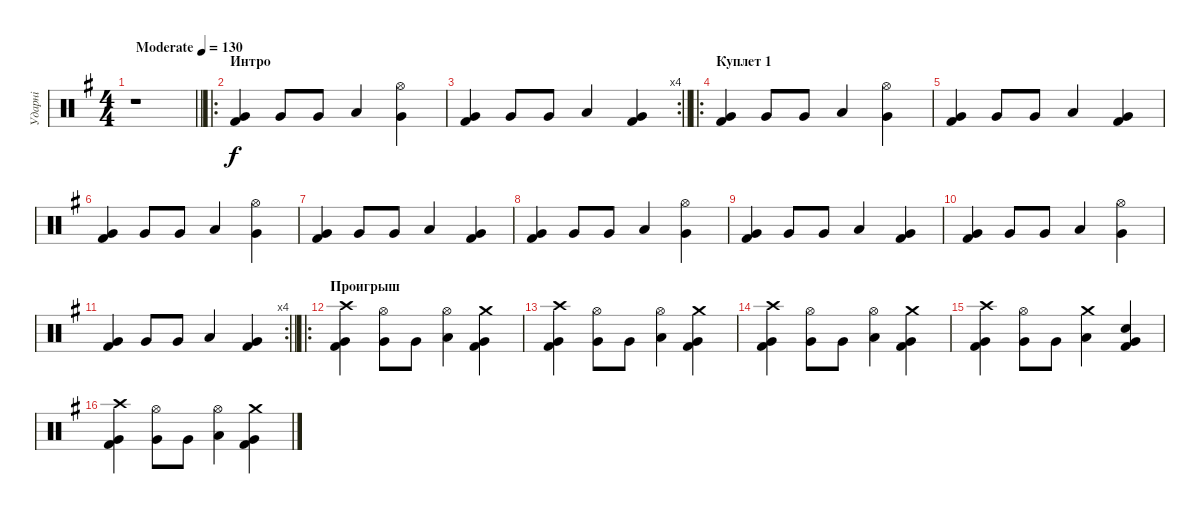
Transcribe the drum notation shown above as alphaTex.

\track ("Ударні" "Ударні") {instrument percussion}
\staff {score}
\articulation defaults
\ts (4 4)
\tempo (130 "Moderate")
\clef neutral
\barLineRight lightlight
\ks eminor
r.1{dy f} |
\ro
\section ("" "Интро")
("Kick (hit) 2" "Very Low Tom (hit)").4 "Very Low Tom (hit)".8 "Very Low Tom (hit)".8 "Low Tom (hit)".4 ("Very Low Tom (hit)" "Hi-Hat (open)").4 |
\rc 4
\barLineRight lightlight
("Kick (hit) 2" "Very Low Tom (hit)").4 "Very Low Tom (hit)".8 "Very Low Tom (hit)".8 "Low Tom (hit)".4 ("Kick (hit) 2" "Very Low Tom (hit)").4 |
\ro
\section ("" "Куплет 1")
("Kick (hit) 2" "Very Low Tom (hit)").4 "Very Low Tom (hit)".8 "Very Low Tom (hit)".8 "Low Tom (hit)".4 ("Very Low Tom (hit)" "Hi-Hat (open)").4 |
("Kick (hit) 2" "Very Low Tom (hit)").4 "Very Low Tom (hit)".8 "Very Low Tom (hit)".8 "Low Tom (hit)".4 ("Kick (hit) 2" "Very Low Tom (hit)").4 |
("Kick (hit) 2" "Very Low Tom (hit)").4 "Very Low Tom (hit)".8 "Very Low Tom (hit)".8 "Low Tom (hit)".4 ("Very Low Tom (hit)" "Hi-Hat (open)").4 |
("Kick (hit) 2" "Very Low Tom (hit)").4 "Very Low Tom (hit)".8 "Very Low Tom (hit)".8 "Low Tom (hit)".4 ("Kick (hit) 2" "Very Low Tom (hit)").4 |
("Kick (hit) 2" "Very Low Tom (hit)").4 "Very Low Tom (hit)".8 "Very Low Tom (hit)".8 "Low Tom (hit)".4 ("Very Low Tom (hit)" "Hi-Hat (open)").4 |
("Kick (hit) 2" "Very Low Tom (hit)").4 "Very Low Tom (hit)".8 "Very Low Tom (hit)".8 "Low Tom (hit)".4 ("Kick (hit) 2" "Very Low Tom (hit)").4 |
("Kick (hit) 2" "Very Low Tom (hit)").4 "Very Low Tom (hit)".8 "Very Low Tom (hit)".8 "Low Tom (hit)".4 ("Very Low Tom (hit)" "Hi-Hat (open)").4 |
\rc 4
\barLineRight lightlight
("Kick (hit) 2" "Very Low Tom (hit)").4 "Very Low Tom (hit)".8 "Very Low Tom (hit)".8 "Low Tom (hit)".4 ("Kick (hit) 2" "Very Low Tom (hit)").4 |
\ro
\section ("" "Проигрыш")
("Kick (hit) 2" "Very Low Tom (hit)" "Crash high (hit)").4 ("Very Low Tom (hit)" "Hi-Hat (open)").8 "Very Low Tom (hit)".8 ("Low Tom (hit)" "Hi-Hat (open)").4 ("Kick (hit) 2" "Very Low Tom (hit)" "Crash medium (hit)").4 |
("Kick (hit) 2" "Very Low Tom (hit)" "Crash high (hit)").4 ("Very Low Tom (hit)" "Hi-Hat (open)").8 "Very Low Tom (hit)".8 ("Low Tom (hit)" "Hi-Hat (open)").4 ("Kick (hit) 2" "Very Low Tom (hit)" "Crash medium (hit)").4 |
("Kick (hit) 2" "Very Low Tom (hit)" "Crash high (hit)").4 ("Very Low Tom (hit)" "Hi-Hat (open)").8 "Very Low Tom (hit)".8 ("Low Tom (hit)" "Hi-Hat (open)").4 ("Kick (hit) 2" "Very Low Tom (hit)" "Crash medium (hit)").4 |
("Kick (hit) 2" "Very Low Tom (hit)" "Crash high (hit)").4 ("Very Low Tom (hit)" "Hi-Hat (open)").8 "Very Low Tom (hit)".8 ("Low Tom (hit)" "Crash medium (hit)").4 ("Kick (hit) 2" "Snare (hit) 2" "Very Low Tom (hit)").4 |
("Kick (hit) 2" "Very Low Tom (hit)" "Crash high (hit)").4 ("Very Low Tom (hit)" "Hi-Hat (open)").8 "Very Low Tom (hit)".8 ("Low Tom (hit)" "Hi-Hat (open)").4 ("Kick (hit) 2" "Very Low Tom (hit)" "Crash medium (hit)").4
